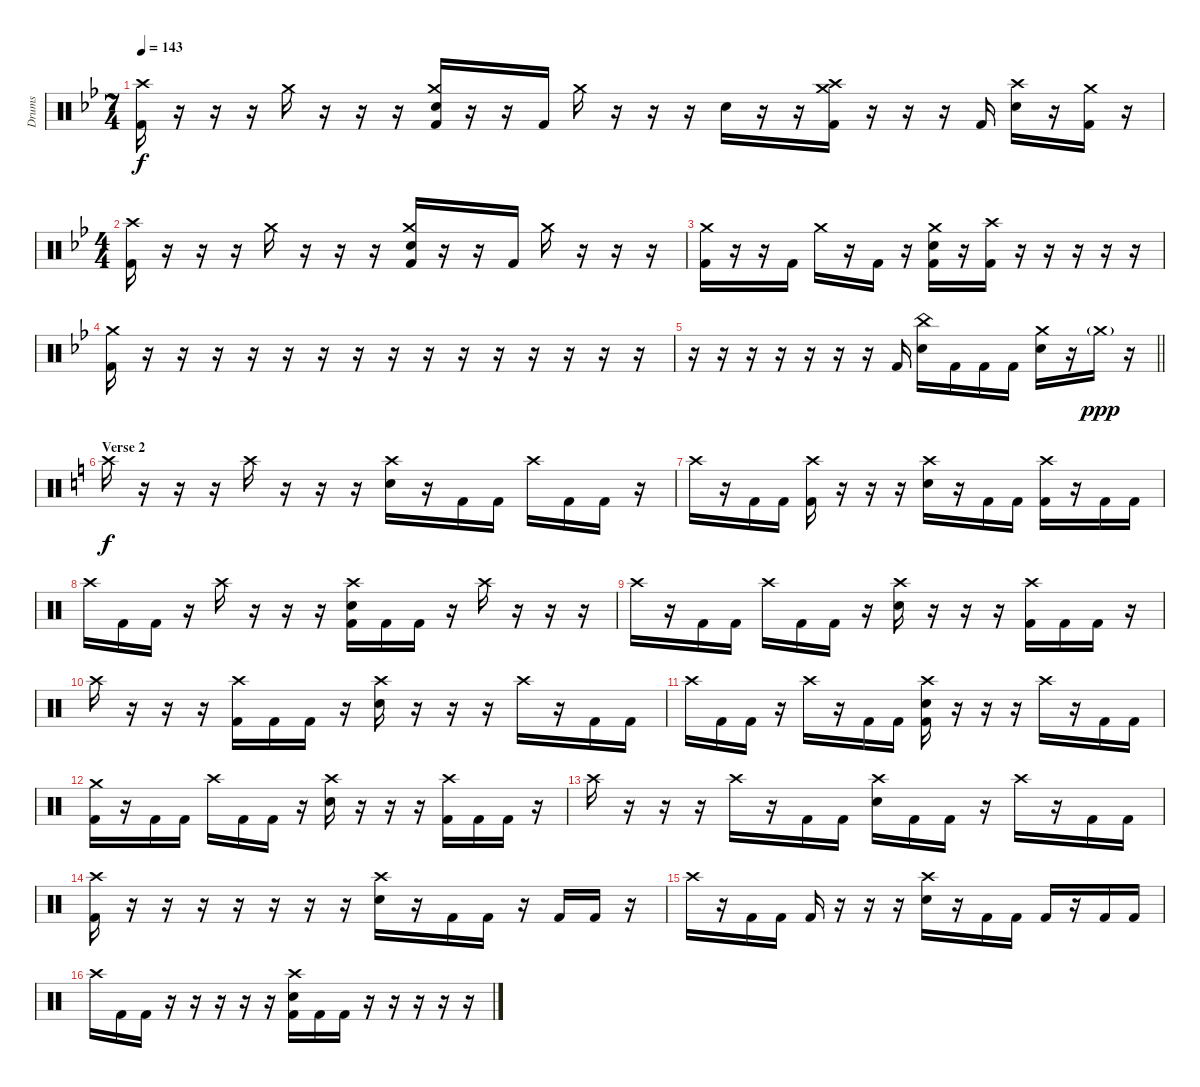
\track ("Drums" "Drums") {instrument percussion}
\staff {score}
\articulation defaults
\ts (7 4)
\tempo 143
\clef neutral
\ks bb
("Crash high (hit)" "Kick (hit) 2").16{dy f} r.16 r.16 r.16 "Crash medium (hit)".16 r.16 r.16 r.16 ("Crash medium (hit)" "Electric Snare (hit)" "Kick (hit) 2").16 r.16 r.16 "Kick (hit) 2".16 "Crash medium (hit)".16 r.16 r.16 r.16 "Electric Snare (hit)".16 r.16 r.16 ("Crash medium (hit)" "Crash high (hit)" "Kick (hit) 2").16 r.16 r.16 r.16 "Kick (hit) 2".16 ("Crash high (hit)" "Electric Snare (hit)").16 r.16 ("Crash medium (hit)" "Kick (hit) 2").16 r.16 |
\ts (4 4)
("Crash high (hit)" "Kick (hit) 2").16 r.16 r.16 r.16 "Crash medium (hit)".16 r.16 r.16 r.16 ("Crash medium (hit)" "Electric Snare (hit)" "Kick (hit) 2").16 r.16 r.16 "Kick (hit) 2".16 "Crash medium (hit)".16 r.16 r.16 r.16 |
("Crash medium (hit)" "Kick (hit) 2").16 r.16 r.16 "Kick (hit) 2".16 "Crash medium (hit)".16 r.16 "Kick (hit) 2".16 r.16 ("Crash medium (hit)" "Electric Snare (hit)" "Kick (hit) 2").16 r.16 ("Crash high (hit)" "Kick (hit) 2").16 r.16 r.16 r.16 r.16 r.16 |
("Crash medium (hit)" "Kick (hit) 2").16 r.16 r.16 r.16 r.16 r.16 r.16 r.16 r.16 r.16 r.16 r.16 r.16 r.16 r.16 r.16 |
\barLineRight lightlight
r.16 r.16 r.16 r.16 r.16 r.16 r.16 "Kick (hit) 2".16 ("China (hit)" "Electric Snare (hit)").16 "Kick (hit) 2".16 "Kick (hit) 2".16 "Kick (hit) 2".16 ("Crash medium (hit)" "Electric Snare (hit)").16 r.16 "Crash medium (hit)"{g}.16{dy ppp} r.16 |
\section ("" "Verse 2")
\ks c "Crash high (hit)".16{dy f}
r.16 r.16 r.16 "Crash high (hit)".16 r.16 r.16 r.16 ("Crash high (hit)" "Electric Snare (hit)").16 r.16 "Kick (hit) 2".16 "Kick (hit) 2".16 "Crash high (hit)".16 "Kick (hit) 2".16 "Kick (hit) 2".16 r.16 |
"Crash high (hit)".16 r.16 "Kick (hit) 2".16 "Kick (hit) 2".16 ("Crash high (hit)" "Kick (hit) 2").16 r.16 r.16 r.16 ("Crash high (hit)" "Electric Snare (hit)").16 r.16 "Kick (hit) 2".16 "Kick (hit) 2".16 ("Crash high (hit)" "Kick (hit) 2").16 r.16 "Kick (hit) 2".16 "Kick (hit) 2".16 |
"Crash high (hit)".16 "Kick (hit) 2".16 "Kick (hit) 2".16 r.16 "Crash high (hit)".16 r.16 r.16 r.16 ("Crash high (hit)" "Electric Snare (hit)" "Kick (hit) 2").16 "Kick (hit) 2".16 "Kick (hit) 2".16 r.16 "Crash high (hit)".16 r.16 r.16 r.16 |
"Crash high (hit)".16 r.16 "Kick (hit) 2".16 "Kick (hit) 2".16 "Crash high (hit)".16 "Kick (hit) 2".16 "Kick (hit) 2".16 r.16 ("Crash high (hit)" "Electric Snare (hit)").16 r.16 r.16 r.16 ("Crash high (hit)" "Kick (hit) 2").16 "Kick (hit) 2".16 "Kick (hit) 2".16 r.16 |
"Crash high (hit)".16 r.16 r.16 r.16 ("Crash high (hit)" "Kick (hit) 2").16 "Kick (hit) 2".16 "Kick (hit) 2".16 r.16 ("Crash high (hit)" "Electric Snare (hit)").16 r.16 r.16 r.16 "Crash high (hit)".16 r.16 "Kick (hit) 2".16 "Kick (hit) 2".16 |
"Crash high (hit)".16 "Kick (hit) 2".16 "Kick (hit) 2".16 r.16 "Crash high (hit)".16 r.16 "Kick (hit) 2".16 "Kick (hit) 2".16 ("Crash high (hit)" "Electric Snare (hit)" "Kick (hit) 2").16 r.16 r.16 r.16 "Crash high (hit)".16 r.16 "Kick (hit) 2".16 "Kick (hit) 2".16 |
("Crash medium (hit)" "Kick (hit) 2").16 r.16 "Kick (hit) 2".16 "Kick (hit) 2".16 "Crash high (hit)".16 "Kick (hit) 2".16 "Kick (hit) 2".16 r.16 ("Crash high (hit)" "Electric Snare (hit)").16 r.16 r.16 r.16 ("Crash high (hit)" "Kick (hit) 2").16 "Kick (hit) 2".16 "Kick (hit) 2".16 r.16 |
"Crash high (hit)".16 r.16 r.16 r.16 "Crash high (hit)".16 r.16 "Kick (hit) 2".16 "Kick (hit) 2".16 ("Crash high (hit)" "Electric Snare (hit)").16 "Kick (hit) 2".16 "Kick (hit) 2".16 r.16 "Crash high (hit)".16 r.16 "Kick (hit) 2".16 "Kick (hit) 2".16 |
("Crash high (hit)" "Kick (hit) 2").16 r.16 r.16 r.16 r.16 r.16 r.16 r.16 ("Crash high (hit)" "Electric Snare (hit)").16 r.16 "Kick (hit) 2".16 "Kick (hit) 2".16 r.16 "Kick (hit) 2".16 "Kick (hit) 2".16 r.16 |
"Crash high (hit)".16 r.16 "Kick (hit) 2".16 "Kick (hit) 2".16 "Kick (hit) 2".16 r.16 r.16 r.16 ("Crash high (hit)" "Electric Snare (hit)").16 r.16 "Kick (hit) 2".16 "Kick (hit) 2".16 "Kick (hit) 2".16 r.16 "Kick (hit) 2".16 "Kick (hit) 2".16 |
"Crash high (hit)".16 "Kick (hit) 2".16 "Kick (hit) 2".16 r.16 r.16 r.16 r.16 r.16 ("Crash high (hit)" "Electric Snare (hit)" "Kick (hit) 2").16 "Kick (hit) 2".16 "Kick (hit) 2".16 r.16 r.16 r.16 r.16 r.16
